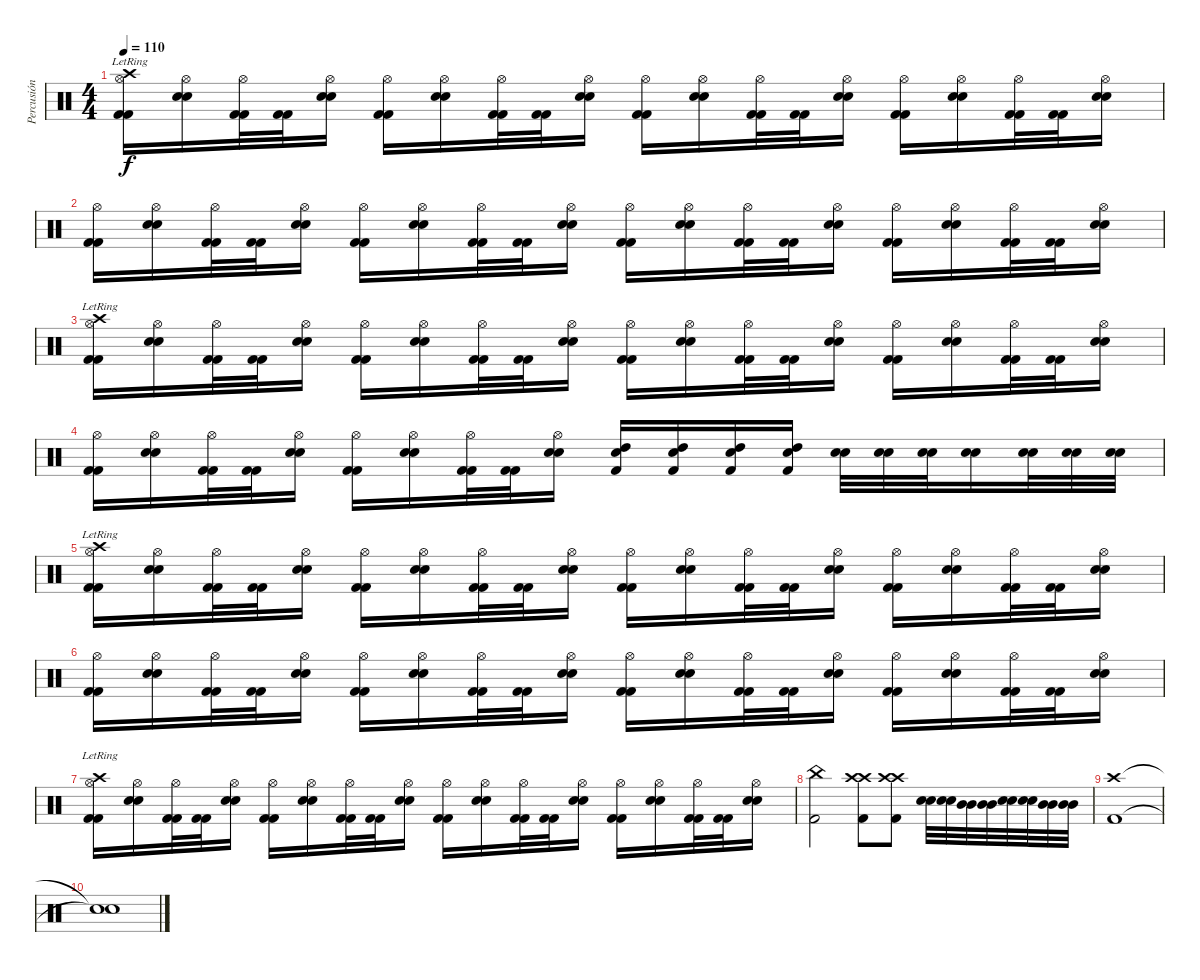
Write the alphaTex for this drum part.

\track ("Percusión" "Percusión") {instrument percussion}
\staff {score}
\articulation defaults
\ts (4 4)
\tempo 110
\clef neutral
\ks c
("Kick (hit) 2" "Kick (hit) 2" "Hi-Hat (open)" "Crash high (hit)"{lr}).16{dy f} ("Snare (hit) 2" "Snare (hit) 2" "Hi-Hat (open)").16 ("Kick (hit) 2" "Kick (hit) 2" "Hi-Hat (open)").32 ("Kick (hit) 2" "Kick (hit) 2").32 ("Snare (hit) 2" "Snare (hit) 2" "Hi-Hat (open)").16 ("Kick (hit) 2" "Kick (hit) 2" "Hi-Hat (open)").16 ("Snare (hit) 2" "Snare (hit) 2" "Hi-Hat (open)").16 ("Kick (hit) 2" "Kick (hit) 2" "Hi-Hat (open)").32 ("Kick (hit) 2" "Kick (hit) 2").32 ("Snare (hit) 2" "Snare (hit) 2" "Hi-Hat (open)").16 ("Kick (hit) 2" "Kick (hit) 2" "Hi-Hat (open)").16 ("Snare (hit) 2" "Snare (hit) 2" "Hi-Hat (open)").16 ("Kick (hit) 2" "Kick (hit) 2" "Hi-Hat (open)").32 ("Kick (hit) 2" "Kick (hit) 2").32 ("Snare (hit) 2" "Snare (hit) 2" "Hi-Hat (open)").16 ("Kick (hit) 2" "Kick (hit) 2" "Hi-Hat (open)").16 ("Snare (hit) 2" "Snare (hit) 2" "Hi-Hat (open)").16 ("Kick (hit) 2" "Kick (hit) 2" "Hi-Hat (open)").32 ("Kick (hit) 2" "Kick (hit) 2").32 ("Snare (hit) 2" "Snare (hit) 2" "Hi-Hat (open)").16 |
("Kick (hit) 2" "Kick (hit) 2" "Hi-Hat (open)").16 ("Snare (hit) 2" "Snare (hit) 2" "Hi-Hat (open)").16 ("Kick (hit) 2" "Kick (hit) 2" "Hi-Hat (open)").32 ("Kick (hit) 2" "Kick (hit) 2").32 ("Snare (hit) 2" "Snare (hit) 2" "Hi-Hat (open)").16 ("Kick (hit) 2" "Kick (hit) 2" "Hi-Hat (open)").16 ("Snare (hit) 2" "Snare (hit) 2" "Hi-Hat (open)").16 ("Kick (hit) 2" "Kick (hit) 2" "Hi-Hat (open)").32 ("Kick (hit) 2" "Kick (hit) 2").32 ("Snare (hit) 2" "Snare (hit) 2" "Hi-Hat (open)").16 ("Kick (hit) 2" "Kick (hit) 2" "Hi-Hat (open)").16 ("Snare (hit) 2" "Snare (hit) 2" "Hi-Hat (open)").16 ("Kick (hit) 2" "Kick (hit) 2" "Hi-Hat (open)").32 ("Kick (hit) 2" "Kick (hit) 2").32 ("Snare (hit) 2" "Snare (hit) 2" "Hi-Hat (open)").16 ("Kick (hit) 2" "Kick (hit) 2" "Hi-Hat (open)").16 ("Snare (hit) 2" "Snare (hit) 2" "Hi-Hat (open)").16 ("Kick (hit) 2" "Kick (hit) 2" "Hi-Hat (open)").32 ("Kick (hit) 2" "Kick (hit) 2").32 ("Snare (hit) 2" "Snare (hit) 2" "Hi-Hat (open)").16 |
("Kick (hit) 2" "Kick (hit) 2" "Hi-Hat (open)" "Crash high (hit)"{lr}).16 ("Snare (hit) 2" "Snare (hit) 2" "Hi-Hat (open)").16 ("Kick (hit) 2" "Kick (hit) 2" "Hi-Hat (open)").32 ("Kick (hit) 2" "Kick (hit) 2").32 ("Snare (hit) 2" "Snare (hit) 2" "Hi-Hat (open)").16 ("Kick (hit) 2" "Kick (hit) 2" "Hi-Hat (open)").16 ("Snare (hit) 2" "Snare (hit) 2" "Hi-Hat (open)").16 ("Kick (hit) 2" "Kick (hit) 2" "Hi-Hat (open)").32 ("Kick (hit) 2" "Kick (hit) 2").32 ("Snare (hit) 2" "Snare (hit) 2" "Hi-Hat (open)").16 ("Kick (hit) 2" "Kick (hit) 2" "Hi-Hat (open)").16 ("Snare (hit) 2" "Snare (hit) 2" "Hi-Hat (open)").16 ("Kick (hit) 2" "Kick (hit) 2" "Hi-Hat (open)").32 ("Kick (hit) 2" "Kick (hit) 2").32 ("Snare (hit) 2" "Snare (hit) 2" "Hi-Hat (open)").16 ("Kick (hit) 2" "Kick (hit) 2" "Hi-Hat (open)").16 ("Snare (hit) 2" "Snare (hit) 2" "Hi-Hat (open)").16 ("Kick (hit) 2" "Kick (hit) 2" "Hi-Hat (open)").32 ("Kick (hit) 2" "Kick (hit) 2").32 ("Snare (hit) 2" "Snare (hit) 2" "Hi-Hat (open)").16 |
("Kick (hit) 2" "Kick (hit) 2" "Hi-Hat (open)").16 ("Snare (hit) 2" "Snare (hit) 2" "Hi-Hat (open)").16 ("Kick (hit) 2" "Kick (hit) 2" "Hi-Hat (open)").32 ("Kick (hit) 2" "Kick (hit) 2").32 ("Snare (hit) 2" "Snare (hit) 2" "Hi-Hat (open)").16 ("Kick (hit) 2" "Kick (hit) 2" "Hi-Hat (open)").16 ("Snare (hit) 2" "Snare (hit) 2" "Hi-Hat (open)").16 ("Kick (hit) 2" "Kick (hit) 2" "Hi-Hat (open)").32 ("Kick (hit) 2" "Kick (hit) 2").32 ("Snare (hit) 2" "Snare (hit) 2" "Hi-Hat (open)").16 ("Snare (hit) 2" "High Tom (hit)" "Kick (hit) 2").16 ("Snare (hit) 2" "High Tom (hit)" "Kick (hit) 2").16 ("Snare (hit) 2" "High Tom (hit)" "Kick (hit) 2").16 ("Snare (hit) 2" "High Tom (hit)" "Kick (hit) 2").16 ("Snare (hit) 2" "Snare (hit) 2").32 ("Snare (hit) 2" "Snare (hit) 2").32 ("Snare (hit) 2" "Snare (hit) 2").32 ("Snare (hit) 2" "Snare (hit) 2").16 ("Snare (hit) 2" "Snare (hit) 2").32 ("Snare (hit) 2" "Snare (hit) 2").32 ("Snare (hit) 2" "Snare (hit) 2").32 |
("Kick (hit) 2" "Kick (hit) 2" "Hi-Hat (open)" "Crash high (hit)"{lr}).16 ("Snare (hit) 2" "Snare (hit) 2" "Hi-Hat (open)").16 ("Kick (hit) 2" "Kick (hit) 2" "Hi-Hat (open)").32 ("Kick (hit) 2" "Kick (hit) 2").32 ("Snare (hit) 2" "Snare (hit) 2" "Hi-Hat (open)").16 ("Kick (hit) 2" "Kick (hit) 2" "Hi-Hat (open)").16 ("Snare (hit) 2" "Snare (hit) 2" "Hi-Hat (open)").16 ("Kick (hit) 2" "Kick (hit) 2" "Hi-Hat (open)").32 ("Kick (hit) 2" "Kick (hit) 2").32 ("Snare (hit) 2" "Snare (hit) 2" "Hi-Hat (open)").16 ("Kick (hit) 2" "Kick (hit) 2" "Hi-Hat (open)").16 ("Snare (hit) 2" "Snare (hit) 2" "Hi-Hat (open)").16 ("Kick (hit) 2" "Kick (hit) 2" "Hi-Hat (open)").32 ("Kick (hit) 2" "Kick (hit) 2").32 ("Snare (hit) 2" "Snare (hit) 2" "Hi-Hat (open)").16 ("Kick (hit) 2" "Kick (hit) 2" "Hi-Hat (open)").16 ("Snare (hit) 2" "Snare (hit) 2" "Hi-Hat (open)").16 ("Kick (hit) 2" "Kick (hit) 2" "Hi-Hat (open)").32 ("Kick (hit) 2" "Kick (hit) 2").32 ("Snare (hit) 2" "Snare (hit) 2" "Hi-Hat (open)").16 |
("Kick (hit) 2" "Kick (hit) 2" "Hi-Hat (open)").16 ("Snare (hit) 2" "Snare (hit) 2" "Hi-Hat (open)").16 ("Kick (hit) 2" "Kick (hit) 2" "Hi-Hat (open)").32 ("Kick (hit) 2" "Kick (hit) 2").32 ("Snare (hit) 2" "Snare (hit) 2" "Hi-Hat (open)").16 ("Kick (hit) 2" "Kick (hit) 2" "Hi-Hat (open)").16 ("Snare (hit) 2" "Snare (hit) 2" "Hi-Hat (open)").16 ("Kick (hit) 2" "Kick (hit) 2" "Hi-Hat (open)").32 ("Kick (hit) 2" "Kick (hit) 2").32 ("Snare (hit) 2" "Snare (hit) 2" "Hi-Hat (open)").16 ("Kick (hit) 2" "Kick (hit) 2" "Hi-Hat (open)").16 ("Snare (hit) 2" "Snare (hit) 2" "Hi-Hat (open)").16 ("Kick (hit) 2" "Kick (hit) 2" "Hi-Hat (open)").32 ("Kick (hit) 2" "Kick (hit) 2").32 ("Snare (hit) 2" "Snare (hit) 2" "Hi-Hat (open)").16 ("Kick (hit) 2" "Kick (hit) 2" "Hi-Hat (open)").16 ("Snare (hit) 2" "Snare (hit) 2" "Hi-Hat (open)").16 ("Kick (hit) 2" "Kick (hit) 2" "Hi-Hat (open)").32 ("Kick (hit) 2" "Kick (hit) 2").32 ("Snare (hit) 2" "Snare (hit) 2" "Hi-Hat (open)").16 |
("Kick (hit) 2" "Kick (hit) 2" "Hi-Hat (open)" "Crash high (hit)"{lr}).16 ("Snare (hit) 2" "Snare (hit) 2" "Hi-Hat (open)").16 ("Kick (hit) 2" "Kick (hit) 2" "Hi-Hat (open)").32 ("Kick (hit) 2" "Kick (hit) 2").32 ("Snare (hit) 2" "Snare (hit) 2" "Hi-Hat (open)").16 ("Kick (hit) 2" "Kick (hit) 2" "Hi-Hat (open)").16 ("Snare (hit) 2" "Snare (hit) 2" "Hi-Hat (open)").16 ("Kick (hit) 2" "Kick (hit) 2" "Hi-Hat (open)").32 ("Kick (hit) 2" "Kick (hit) 2").32 ("Snare (hit) 2" "Snare (hit) 2" "Hi-Hat (open)").16 ("Kick (hit) 2" "Kick (hit) 2" "Hi-Hat (open)").16 ("Snare (hit) 2" "Snare (hit) 2" "Hi-Hat (open)").16 ("Kick (hit) 2" "Kick (hit) 2" "Hi-Hat (open)").32 ("Kick (hit) 2" "Kick (hit) 2").32 ("Snare (hit) 2" "Snare (hit) 2" "Hi-Hat (open)").16 ("Kick (hit) 2" "Kick (hit) 2" "Hi-Hat (open)").16 ("Snare (hit) 2" "Snare (hit) 2" "Hi-Hat (open)").16 ("Kick (hit) 2" "Kick (hit) 2" "Hi-Hat (open)").32 ("Kick (hit) 2" "Kick (hit) 2").32 ("Snare (hit) 2" "Snare (hit) 2" "Hi-Hat (open)").16 |
("China (hit)" "Kick (hit) 2").2 ("Crash high (hit)" "Crash high (hit)" "Kick (hit) 2").8 ("Crash high (hit)" "Crash high (hit)" "Kick (hit) 2").8 ("Snare (hit) 2" "Snare (hit) 2").32 ("Snare (hit) 2" "Snare (hit) 2").32 ("Mid Tom (hit)" "Mid Tom (hit)").32 ("Mid Tom (hit)" "Mid Tom (hit)").32 ("Snare (hit) 2" "Snare (hit) 2").32 ("Snare (hit) 2" "Snare (hit) 2").32 ("Mid Tom (hit)" "Mid Tom (hit)").32 ("Mid Tom (hit)" "Mid Tom (hit)").32 |
("Crash high (hit)" "Kick (hit) 2").1 |
("Snare (hit)"{t} "Snare (hit)"{t}).1
